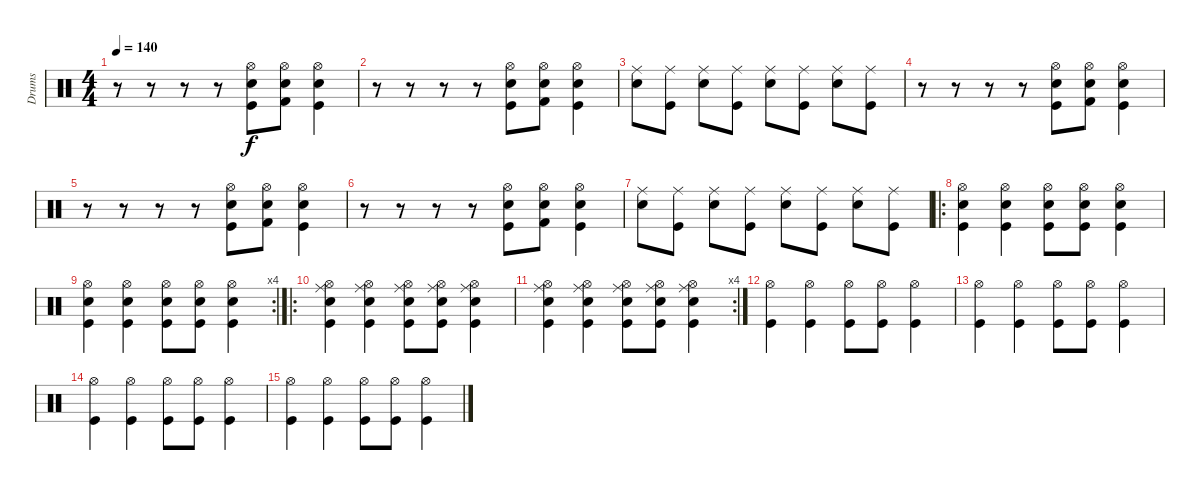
\track ("Drums" "Drums") {instrument percussion}
\staff {score}
\articulation defaults
\ts (4 4)
\tempo 140
\clef neutral
\ks c
r.8{dy f} r.8 r.8 r.8 ("Hi-Hat (open)" "Snare (hit) 2" "Kick (hit)").8 ("Hi-Hat (open)" "Snare (hit) 2" "Kick (hit) 2").8 ("Hi-Hat (open)" "Kick (hit)" "Snare (hit) 2").4 |
r.8 r.8 r.8 r.8 ("Hi-Hat (open)" "Snare (hit) 2" "Kick (hit)").8 ("Hi-Hat (open)" "Snare (hit) 2" "Kick (hit) 2").8 ("Hi-Hat (open)" "Kick (hit)" "Snare (hit) 2").4 |
("Ride (middle)" "Snare (hit) 2").8 ("Ride (middle)" "Kick (hit)").8 ("Ride (middle)" "Snare (hit) 2").8 ("Ride (middle)" "Kick (hit)").8 ("Ride (middle)" "Snare (hit) 2").8 ("Ride (middle)" "Kick (hit)").8 ("Ride (middle)" "Snare (hit) 2").8 ("Ride (middle)" "Kick (hit)").8 |
r.8 r.8 r.8 r.8 ("Hi-Hat (open)" "Snare (hit) 2" "Kick (hit)").8 ("Hi-Hat (open)" "Snare (hit) 2" "Kick (hit) 2").8 ("Hi-Hat (open)" "Kick (hit)" "Snare (hit) 2").4 |
r.8 r.8 r.8 r.8 ("Hi-Hat (open)" "Snare (hit) 2" "Kick (hit)").8 ("Hi-Hat (open)" "Snare (hit) 2" "Kick (hit) 2").8 ("Hi-Hat (open)" "Kick (hit)" "Snare (hit) 2").4 |
r.8 r.8 r.8 r.8 ("Hi-Hat (open)" "Snare (hit) 2" "Kick (hit)").8 ("Hi-Hat (open)" "Snare (hit) 2" "Kick (hit) 2").8 ("Hi-Hat (open)" "Kick (hit)" "Snare (hit) 2").4 |
("Ride (middle)" "Snare (hit) 2").8 ("Ride (middle)" "Kick (hit)").8 ("Ride (middle)" "Snare (hit) 2").8 ("Ride (middle)" "Kick (hit)").8 ("Ride (middle)" "Snare (hit) 2").8 ("Ride (middle)" "Kick (hit)").8 ("Ride (middle)" "Snare (hit) 2").8 ("Ride (middle)" "Kick (hit)").8 |
\ro
("Hi-Hat (open)" "Snare (hit) 2" "Kick (hit)").4 ("Hi-Hat (open)" "Snare (hit) 2" "Kick (hit)").4 ("Hi-Hat (open)" "Snare (hit) 2" "Kick (hit)").8 ("Hi-Hat (open)" "Snare (hit) 2" "Kick (hit)").8 ("Hi-Hat (open)" "Snare (hit) 2" "Kick (hit)").4 |
\rc 4
("Hi-Hat (open)" "Snare (hit) 2" "Kick (hit)").4 ("Hi-Hat (open)" "Snare (hit) 2" "Kick (hit)").4 ("Hi-Hat (open)" "Snare (hit) 2" "Kick (hit)").8 ("Hi-Hat (open)" "Snare (hit) 2" "Kick (hit)").8 ("Hi-Hat (open)" "Snare (hit) 2" "Kick (hit)").4 |
\ro
("Ride (middle)" "Hi-Hat (open)" "Snare (hit) 2" "Kick (hit)").4 ("Ride (middle)" "Hi-Hat (open)" "Snare (hit) 2" "Kick (hit)").4 ("Ride (middle)" "Hi-Hat (open)" "Snare (hit) 2" "Kick (hit)").8 ("Ride (middle)" "Hi-Hat (open)" "Snare (hit) 2" "Kick (hit)").8 ("Ride (middle)" "Hi-Hat (open)" "Snare (hit) 2" "Kick (hit)").4 |
\rc 4
("Ride (middle)" "Hi-Hat (open)" "Snare (hit) 2" "Kick (hit)").4 ("Ride (middle)" "Hi-Hat (open)" "Snare (hit) 2" "Kick (hit)").4 ("Ride (middle)" "Hi-Hat (open)" "Snare (hit) 2" "Kick (hit)").8 ("Ride (middle)" "Hi-Hat (open)" "Snare (hit) 2" "Kick (hit)").8 ("Ride (middle)" "Hi-Hat (open)" "Snare (hit) 2" "Kick (hit)").4 |
("Hi-Hat (open)" "Kick (hit)").4 ("Hi-Hat (open)" "Kick (hit)").4 ("Hi-Hat (open)" "Kick (hit)").8 ("Hi-Hat (open)" "Kick (hit)").8 ("Hi-Hat (open)" "Kick (hit)").4 |
("Hi-Hat (open)" "Kick (hit)").4 ("Hi-Hat (open)" "Kick (hit)").4 ("Hi-Hat (open)" "Kick (hit)").8 ("Hi-Hat (open)" "Kick (hit)").8 ("Hi-Hat (open)" "Kick (hit)").4 |
("Hi-Hat (open)" "Kick (hit)").4 ("Hi-Hat (open)" "Kick (hit)").4 ("Hi-Hat (open)" "Kick (hit)").8 ("Hi-Hat (open)" "Kick (hit)").8 ("Hi-Hat (open)" "Kick (hit)").4 |
("Hi-Hat (open)" "Kick (hit)").4 ("Hi-Hat (open)" "Kick (hit)").4 ("Hi-Hat (open)" "Kick (hit)").8 ("Hi-Hat (open)" "Kick (hit)").8 ("Hi-Hat (open)" "Kick (hit)").4
